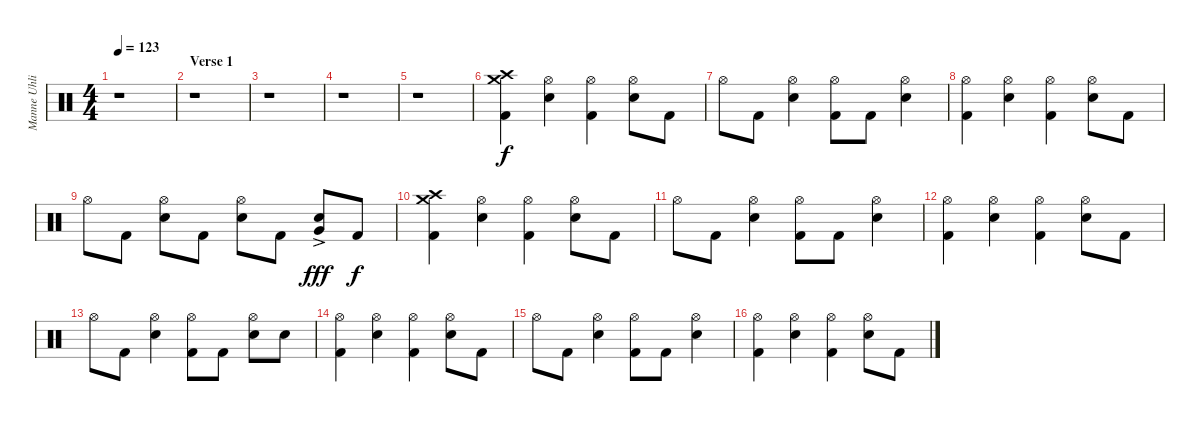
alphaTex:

\track ("Manne Uhlig" "Manne Uhli") {instrument percussion}
\staff {score}
\articulation defaults
\ts (4 4)
\tempo 123
\clef neutral
\ks c
r.1{dy f} |
\section ("" "Verse 1")
r.1 |
r.1 |
r.1 |
r.1 |
("Crash high (hit)" "Crash medium (hit)" "Kick (hit) 2").4 ("Hi-Hat (open)" "Snare (hit) 2").4 ("Hi-Hat (open)" "Kick (hit) 2").4 ("Hi-Hat (open)" "Snare (hit) 2").8 "Kick (hit) 2".8 |
"Hi-Hat (open)".8 "Kick (hit) 2".8 ("Hi-Hat (open)" "Snare (hit) 2").4 ("Hi-Hat (open)" "Kick (hit) 2").8 "Kick (hit) 2".8 ("Hi-Hat (open)" "Snare (hit) 2").4 |
("Hi-Hat (open)" "Kick (hit) 2").4 ("Hi-Hat (open)" "Snare (hit) 2").4 ("Hi-Hat (open)" "Kick (hit) 2").4 ("Hi-Hat (open)" "Snare (hit) 2").8 "Kick (hit) 2".8 |
"Hi-Hat (open)".8 "Kick (hit) 2".8 ("Hi-Hat (open)" "Snare (hit) 2").8 "Kick (hit) 2".8 ("Hi-Hat (open)" "Snare (hit) 2").8 "Kick (hit) 2".8 ("Snare (hit) 2" "Very Low Tom (hit)"{ac}).8{dy fff} "Kick (hit) 2".8{dy f} |
("Crash high (hit)" "Crash medium (hit)" "Kick (hit) 2").4 ("Hi-Hat (open)" "Snare (hit) 2").4 ("Hi-Hat (open)" "Kick (hit) 2").4 ("Hi-Hat (open)" "Snare (hit) 2").8 "Kick (hit) 2".8 |
"Hi-Hat (open)".8 "Kick (hit) 2".8 ("Hi-Hat (open)" "Snare (hit) 2").4 ("Hi-Hat (open)" "Kick (hit) 2").8 "Kick (hit) 2".8 ("Hi-Hat (open)" "Snare (hit) 2").4 |
("Hi-Hat (open)" "Kick (hit) 2").4 ("Hi-Hat (open)" "Snare (hit) 2").4 ("Hi-Hat (open)" "Kick (hit) 2").4 ("Hi-Hat (open)" "Snare (hit) 2").8 "Kick (hit) 2".8 |
"Hi-Hat (open)".8 "Kick (hit) 2".8 ("Hi-Hat (open)" "Snare (hit) 2").4 ("Hi-Hat (open)" "Kick (hit) 2").8 "Kick (hit) 2".8 ("Hi-Hat (open)" "Snare (hit) 2").8 "Snare (hit) 2".8 |
("Hi-Hat (open)" "Kick (hit) 2").4 ("Hi-Hat (open)" "Snare (hit) 2").4 ("Hi-Hat (open)" "Kick (hit) 2").4 ("Hi-Hat (open)" "Snare (hit) 2").8 "Kick (hit) 2".8 |
"Hi-Hat (open)".8 "Kick (hit) 2".8 ("Hi-Hat (open)" "Snare (hit) 2").4 ("Hi-Hat (open)" "Kick (hit) 2").8 "Kick (hit) 2".8 ("Hi-Hat (open)" "Snare (hit) 2").4 |
("Hi-Hat (open)" "Kick (hit) 2").4 ("Hi-Hat (open)" "Snare (hit) 2").4 ("Hi-Hat (open)" "Kick (hit) 2").4 ("Hi-Hat (open)" "Snare (hit) 2").8 "Kick (hit) 2".8
